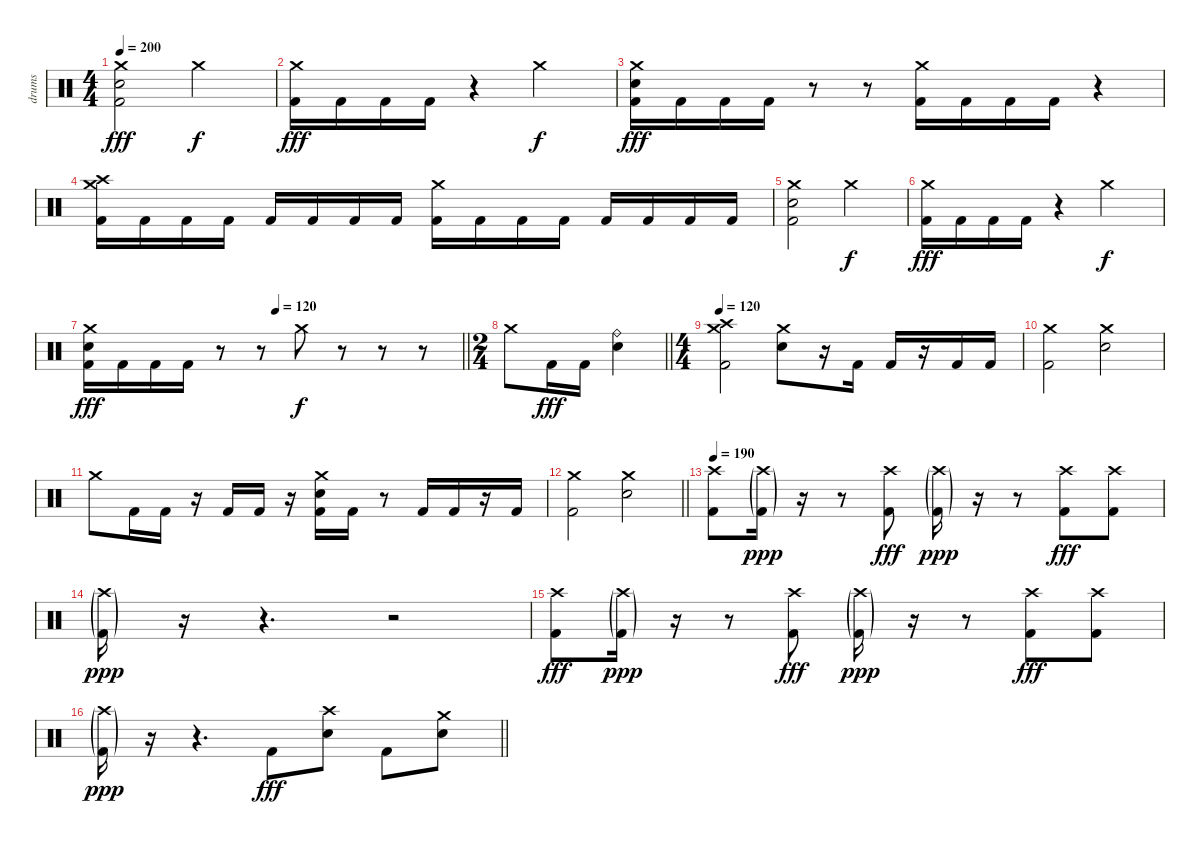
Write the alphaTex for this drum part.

\track ("drums" "drums") {instrument percussion}
\staff {score}
\articulation defaults
\ts (4 4)
\tempo 200
\clef neutral
\ks c
("Crash medium (hit)" "Electric Snare (hit)" "Kick (hit) 2").2{dy fff} "Crash medium (hit)".2{dy f} |
("Crash medium (hit)" "Kick (hit) 2").16{dy fff} "Kick (hit) 2".16 "Kick (hit) 2".16 "Kick (hit) 2".16 r.4 "Crash medium (hit)".2{dy f} |
("Crash medium (hit)" "Electric Snare (hit)" "Kick (hit) 2").16{dy fff} "Kick (hit) 2".16 "Kick (hit) 2".16 "Kick (hit) 2".16 r.8 r.8 ("Crash medium (hit)" "Kick (hit) 2").16 "Kick (hit) 2".16 "Kick (hit) 2".16 "Kick (hit) 2".16 r.4 |
("Crash high (hit)" "Crash medium (hit)" "Kick (hit) 2").16 "Kick (hit) 2".16 "Kick (hit) 2".16 "Kick (hit) 2".16 "Kick (hit) 2".16 "Kick (hit) 2".16 "Kick (hit) 2".16 "Kick (hit) 2".16 ("Crash medium (hit)" "Kick (hit) 2").16 "Kick (hit) 2".16 "Kick (hit) 2".16 "Kick (hit) 2".16 "Kick (hit) 2".16 "Kick (hit) 2".16 "Kick (hit) 2".16 "Kick (hit) 2".16 |
("Crash medium (hit)" "Electric Snare (hit)" "Kick (hit) 2").2 "Crash medium (hit)".2{dy f} |
("Crash medium (hit)" "Kick (hit) 2").16{dy fff} "Kick (hit) 2".16 "Kick (hit) 2".16 "Kick (hit) 2".16 r.4 "Crash medium (hit)".2{dy f} |
\tempo (120 0.5)
\barLineRight lightlight
("Crash medium (hit)" "Electric Snare (hit)" "Kick (hit) 2").16{dy fff} "Kick (hit) 2".16 "Kick (hit) 2".16 "Kick (hit) 2".16 r.8 r.8 "Crash medium (hit)".8{dy f} r.8 r.8 r.8 |
\ts (2 4)
\barLineRight lightlight "Crash medium (hit)".8 "Kick (hit) 2".16{dy fff} "Kick (hit) 2".16
("Ride (bell)" "Electric Snare (hit)").4 |
\ts (4 4)
\section ("" "")
\tempo 120
("Crash high (hit)" "Crash medium (hit)" "Kick (hit) 2").2 ("Crash medium (hit)" "Electric Snare (hit)").8 r.16 "Kick (hit) 2".16 "Kick (hit) 2".16 r.16 "Kick (hit) 2".16 "Kick (hit) 2".16 |
("Crash medium (hit)" "Kick (hit) 2").2 ("Crash medium (hit)" "Electric Snare (hit)").2 |
"Crash medium (hit)".8 "Kick (hit) 2".16 "Kick (hit) 2".16 r.16 "Kick (hit) 2".16 "Kick (hit) 2".16 r.16 ("Crash medium (hit)" "Electric Snare (hit)" "Kick (hit) 2").16 "Kick (hit) 2".16 r.8 "Kick (hit) 2".16 "Kick (hit) 2".16 r.16 "Kick (hit) 2".16 |
\barLineRight lightlight
("Crash medium (hit)" "Kick (hit) 2").2 ("Crash medium (hit)" "Electric Snare (hit)").2 |
\section ("" "")
\tempo 190
("Crash high (hit)" "Kick (hit) 2").8 ("Crash high (hit)"{g} "Kick (hit) 2"{g}).16{dy ppp} r.16 r.8 ("Crash high (hit)" "Kick (hit) 2").8{dy fff} ("Crash high (hit)"{g} "Kick (hit) 2"{g}).16{dy ppp} r.16 r.8 ("Crash high (hit)" "Kick (hit) 2").8{dy fff} ("Crash high (hit)" "Kick (hit) 2").8 |
("Crash high (hit)"{g} "Kick (hit) 2"{g}).16{dy ppp} r.16 r.4{d} r.2 |
("Crash high (hit)" "Kick (hit) 2").8{dy fff} ("Crash high (hit)"{g} "Kick (hit) 2"{g}).16{dy ppp} r.16 r.8 ("Crash high (hit)" "Kick (hit) 2").8{dy fff} ("Crash high (hit)"{g} "Kick (hit) 2"{g}).16{dy ppp} r.16 r.8 ("Crash high (hit)" "Kick (hit) 2").8{dy fff} ("Crash high (hit)" "Kick (hit) 2").8 |
\barLineRight lightlight
("Crash high (hit)"{g} "Kick (hit) 2"{g}).16{dy ppp} r.16 r.4{d} "Kick (hit) 2".8{dy fff} ("Crash high (hit)" "Electric Snare (hit)").8 "Kick (hit) 2".8 ("Crash medium (hit)" "Electric Snare (hit)").8
